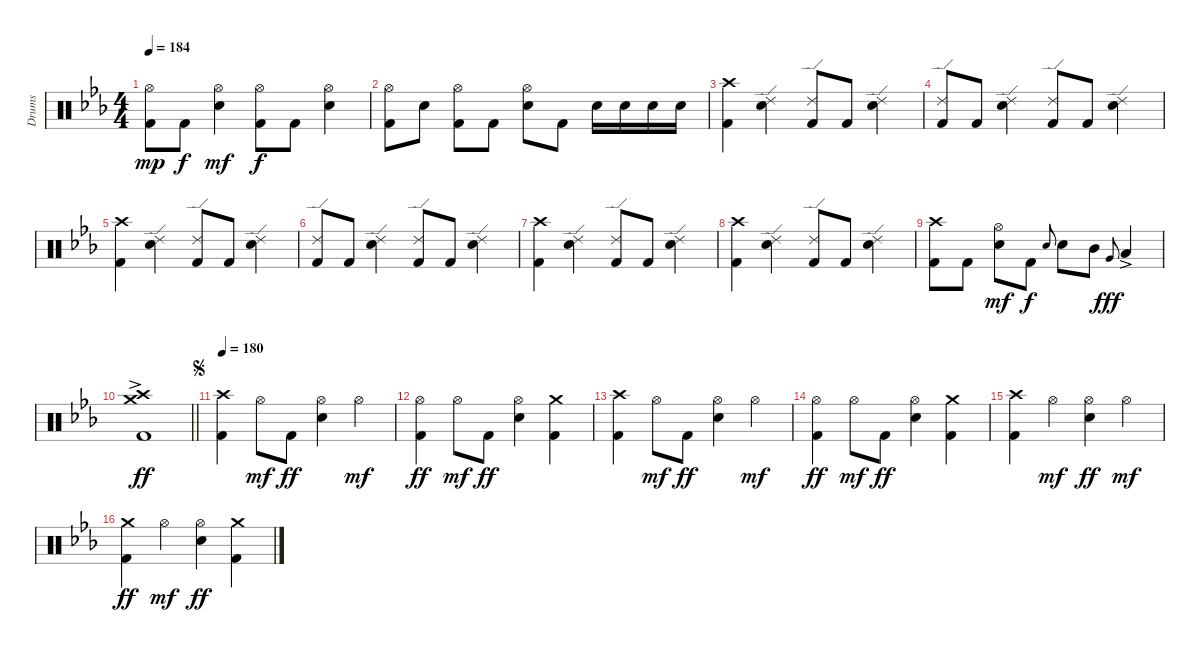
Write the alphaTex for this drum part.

\track ("Drums" "Drums") {instrument percussion}
\staff {score}
\articulation defaults
\ts (4 4)
\tempo 184
\clef neutral
\ks eb
("Hi-Hat (open)" "Kick (hit) 2").8{dy mp} "Kick (hit) 2".8{dy f} ("Hi-Hat (open)" "Electric Snare (hit)").4{dy mf} ("Hi-Hat (open)" "Kick (hit) 2").8{dy f} "Kick (hit) 2".8 ("Hi-Hat (open)" "Electric Snare (hit)").4 |
("Hi-Hat (open)" "Kick (hit) 2").8 "Electric Snare (hit)".8 ("Hi-Hat (open)" "Kick (hit) 2").8 "Kick (hit) 2".8 ("Hi-Hat (open)" "Electric Snare (hit)").8 "Kick (hit) 2".8 "Electric Snare (hit)".16 "Electric Snare (hit)".16 "Electric Snare (hit)".16 "Electric Snare (hit)".16 |
("Crash high (hit)" "Kick (hit) 2").4 ("Ride (edge) 2" "Electric Snare (hit)").4 ("Ride (edge) 2" "Kick (hit) 2").8 "Kick (hit) 2".8 ("Ride (edge) 2" "Electric Snare (hit)").4 |
("Ride (edge) 2" "Kick (hit) 2").8 "Kick (hit) 2".8 ("Ride (edge) 2" "Electric Snare (hit)").4 ("Ride (edge) 2" "Kick (hit) 2").8 "Kick (hit) 2".8 ("Ride (edge) 2" "Electric Snare (hit)").4 |
("Crash high (hit)" "Kick (hit) 2").4 ("Ride (edge) 2" "Electric Snare (hit)").4 ("Ride (edge) 2" "Kick (hit) 2").8 "Kick (hit) 2".8 ("Ride (edge) 2" "Electric Snare (hit)").4 |
("Ride (edge) 2" "Kick (hit) 2").8 "Kick (hit) 2".8 ("Ride (edge) 2" "Electric Snare (hit)").4 ("Ride (edge) 2" "Kick (hit) 2").8 "Kick (hit) 2".8 ("Ride (edge) 2" "Electric Snare (hit)").4 |
("Crash high (hit)" "Kick (hit) 2").4 ("Ride (edge) 2" "Electric Snare (hit)").4 ("Ride (edge) 2" "Kick (hit) 2").8 "Kick (hit) 2".8 ("Ride (edge) 2" "Electric Snare (hit)").4 |
("Crash high (hit)" "Kick (hit) 2").4 ("Ride (edge) 2" "Electric Snare (hit)").4 ("Ride (edge) 2" "Kick (hit) 2").8 "Kick (hit) 2".8 ("Ride (edge) 2" "Electric Snare (hit)").4 |
("Crash high (hit)" "Kick (hit) 2").8 "Kick (hit) 2".8 ("Hi-Hat (open)" "Electric Snare (hit)").8{dy mf} "Kick (hit) 2".8{dy f} "Electric Snare (hit)".8{gr onbeat} "Electric Snare (hit)".8 "Mid Tom (hit)".8 "Very Low Tom (hit)".8{gr onbeat dy fff} "Low Tom (hit)"{ac}.4 |
\barLineRight lightlight
("Crash medium (hit)"{ac} "Crash high (hit)"{ac} "Kick (hit) 2"{ac}).1{dy ff} |
\jump segno
\tempo 180
("Crash high (hit)" "Kick (hit) 2").4 "Hi-Hat (open)".8{dy mf} "Kick (hit) 2".8{dy ff} ("Hi-Hat (open)" "Electric Snare (hit)").4 "Hi-Hat (open)".4{dy mf} |
("Hi-Hat (open)" "Kick (hit) 2").4{dy ff} "Hi-Hat (open)".8{dy mf} "Kick (hit) 2".8{dy ff} ("Hi-Hat (open)" "Electric Snare (hit)").4 ("Crash medium (hit)" "Kick (hit) 2").4 |
("Crash high (hit)" "Kick (hit) 2").4 "Hi-Hat (open)".8{dy mf} "Kick (hit) 2".8{dy ff} ("Hi-Hat (open)" "Electric Snare (hit)").4 "Hi-Hat (open)".4{dy mf} |
("Hi-Hat (open)" "Kick (hit) 2").4{dy ff} "Hi-Hat (open)".8{dy mf} "Kick (hit) 2".8{dy ff} ("Hi-Hat (open)" "Electric Snare (hit)").4 ("Crash medium (hit)" "Kick (hit) 2").4 |
("Crash high (hit)" "Kick (hit) 2").4 "Hi-Hat (open)".4{dy mf} ("Hi-Hat (open)" "Electric Snare (hit)").4{dy ff} "Hi-Hat (open)".4{dy mf} |
("Crash medium (hit)" "Kick (hit) 2").4{dy ff} "Hi-Hat (open)".4{dy mf} ("Hi-Hat (open)" "Electric Snare (hit)").4{dy ff} ("Crash medium (hit)" "Kick (hit) 2").4
